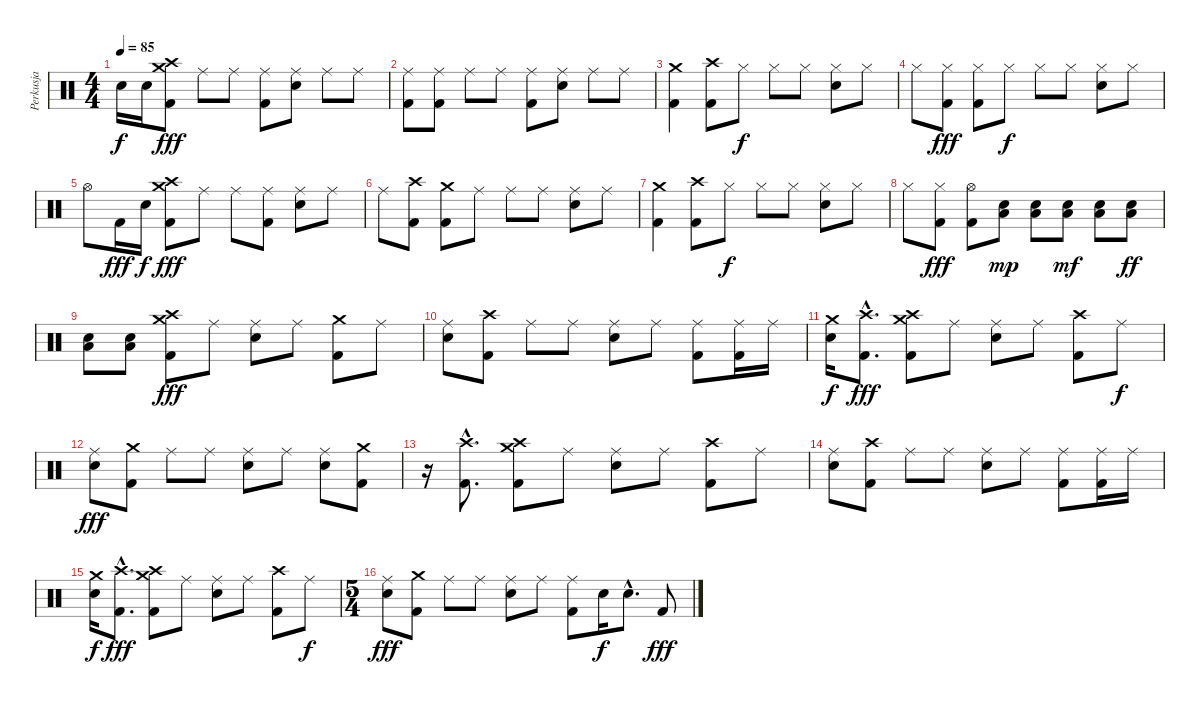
\track ("Perkusja" "Perkusja") {instrument percussion}
\staff {score}
\articulation defaults
\ts (4 4)
\tempo 85
\clef neutral
\ks c "Electric Snare (hit)".16{dy f} "Electric Snare (hit)".16
("Crash medium (hit)" "Crash high (hit)" "Kick (hit) 2").8{dy fff} "Ride (middle)".8 "Ride (middle)".8 ("Ride (middle)" "Kick (hit) 2").8 ("Ride (middle)" "Electric Snare (hit)").8 "Ride (middle)".8 "Ride (middle)".8 |
("Ride (middle)" "Kick (hit) 2").8 ("Ride (middle)" "Kick (hit) 2").8 "Ride (middle)".8 "Ride (middle)".8 ("Ride (middle)" "Kick (hit) 2").8 ("Ride (middle)" "Electric Snare (hit)").8 "Ride (middle)".8 "Ride (middle)".8 |
("Crash medium (hit)" "Kick (hit) 2").4 ("Crash high (hit)" "Kick (hit) 2").8 "Hi-Hat (closed)".8{dy f} "Hi-Hat (closed)".8 "Hi-Hat (closed)".8 ("Hi-Hat (closed)" "Electric Snare (hit)").8 "Hi-Hat (closed)".8 |
"Hi-Hat (closed)".8 ("Hi-Hat (closed)" "Kick (hit) 2").8{dy fff} ("Hi-Hat (closed)" "Kick (hit) 2").8 "Hi-Hat (closed)".8{dy f} "Hi-Hat (closed)".8 "Hi-Hat (closed)".8 ("Hi-Hat (closed)" "Electric Snare (hit)").8 "Hi-Hat (closed)".8 |
"Hi-Hat (open)".8 "Kick (hit) 2".16{dy fff} "Electric Snare (hit)".16{dy f} ("Crash medium (hit)" "Crash high (hit)" "Kick (hit) 2").8{dy fff} "Ride (middle)".8 "Ride (middle)".8 ("Ride (middle)" "Kick (hit) 2").8 ("Ride (middle)" "Electric Snare (hit)").8 "Ride (middle)".8 |
"Ride (middle)".8 ("Crash high (hit)" "Kick (hit) 2").8 ("Crash medium (hit)" "Kick (hit) 2").8 "Ride (middle)".8 "Ride (middle)".8 "Ride (middle)".8 ("Ride (middle)" "Electric Snare (hit)").8 "Ride (middle)".8 |
("Crash medium (hit)" "Kick (hit) 2").4 ("Crash high (hit)" "Kick (hit) 2").8 "Hi-Hat (closed)".8{dy f} "Hi-Hat (closed)".8 "Hi-Hat (closed)".8 ("Hi-Hat (closed)" "Electric Snare (hit)").8 "Hi-Hat (closed)".8 |
"Hi-Hat (closed)".8 ("Hi-Hat (closed)" "Kick (hit) 2").8{dy fff} ("Hi-Hat (open)" "Kick (hit) 2").8 ("Low Tom (hit)" "Electric Snare (hit)").8{dy mp} ("Low Tom (hit)" "Electric Snare (hit)").8 ("Low Tom (hit)" "Electric Snare (hit)").8{dy mf} ("Low Tom (hit)" "Electric Snare (hit)").8 ("Low Tom (hit)" "Electric Snare (hit)").8{dy ff} |
("Low Tom (hit)" "Electric Snare (hit)").8 ("Low Tom (hit)" "Electric Snare (hit)").8 ("Crash medium (hit)" "Crash high (hit)" "Kick (hit) 2").8{dy fff} "Ride (middle)".8 ("Ride (middle)" "Electric Snare (hit)").8 "Ride (middle)".8 ("Crash medium (hit)" "Kick (hit) 2").8 "Ride (middle)".8 |
("Ride (middle)" "Electric Snare (hit)").8 ("Crash high (hit)" "Kick (hit) 2").8 "Ride (middle)".8 "Ride (middle)".8 ("Ride (middle)" "Electric Snare (hit)").8 "Ride (middle)".8 ("Ride (middle)" "Kick (hit) 2").8 ("Ride (middle)" "Kick (hit) 2").16 "Ride (middle)".16 |
("Crash medium (hit)" "Electric Snare (hit)").16{dy f} ("Crash high (hit)"{hac} "Kick (hit) 2"{hac}).8{d dy fff} ("Crash medium (hit)" "Crash high (hit)" "Kick (hit) 2").8 "Ride (middle)".8 ("Ride (middle)" "Electric Snare (hit)").8 "Ride (middle)".8 ("Crash high (hit)" "Kick (hit) 2").8 "Ride (middle)".8{dy f} |
("Ride (middle)" "Electric Snare (hit)").8{dy fff} ("Crash medium (hit)" "Kick (hit) 2").8 "Ride (middle)".8 "Ride (middle)".8 ("Ride (middle)" "Electric Snare (hit)").8 "Ride (middle)".8 ("Ride (middle)" "Electric Snare (hit)").8 ("Crash medium (hit)" "Kick (hit) 2").8 |
r.16 ("Crash high (hit)"{hac} "Kick (hit) 2"{hac}).8{d} ("Crash medium (hit)" "Crash high (hit)" "Kick (hit) 2").8 "Ride (middle)".8 ("Ride (middle)" "Electric Snare (hit)").8 "Ride (middle)".8 ("Crash high (hit)" "Kick (hit) 2").8 "Ride (middle)".8 |
("Ride (middle)" "Electric Snare (hit)").8 ("Crash high (hit)" "Kick (hit) 2").8 "Ride (middle)".8 "Ride (middle)".8 ("Ride (middle)" "Electric Snare (hit)").8 "Ride (middle)".8 ("Ride (middle)" "Kick (hit) 2").8 ("Ride (middle)" "Kick (hit) 2").16 "Ride (middle)".16 |
("Crash medium (hit)" "Electric Snare (hit)").16{dy f} ("Crash high (hit)"{hac} "Kick (hit) 2"{hac}).8{d dy fff} ("Crash medium (hit)" "Crash high (hit)" "Kick (hit) 2").8 "Ride (middle)".8 ("Ride (middle)" "Electric Snare (hit)").8 "Ride (middle)".8 ("Crash high (hit)" "Kick (hit) 2").8 "Ride (middle)".8{dy f} |
\ts (5 4)
("Ride (middle)" "Electric Snare (hit)").8{dy fff} ("Crash medium (hit)" "Kick (hit) 2").8 "Ride (middle)".8 "Ride (middle)".8 ("Ride (middle)" "Electric Snare (hit)").8 "Ride (middle)".8 ("Ride (middle)" "Kick (hit) 2").8 "Electric Snare (hit)".16{dy f} "Electric Snare (hit)"{hac}.8{d} "Kick (hit) 2".8{dy fff}
